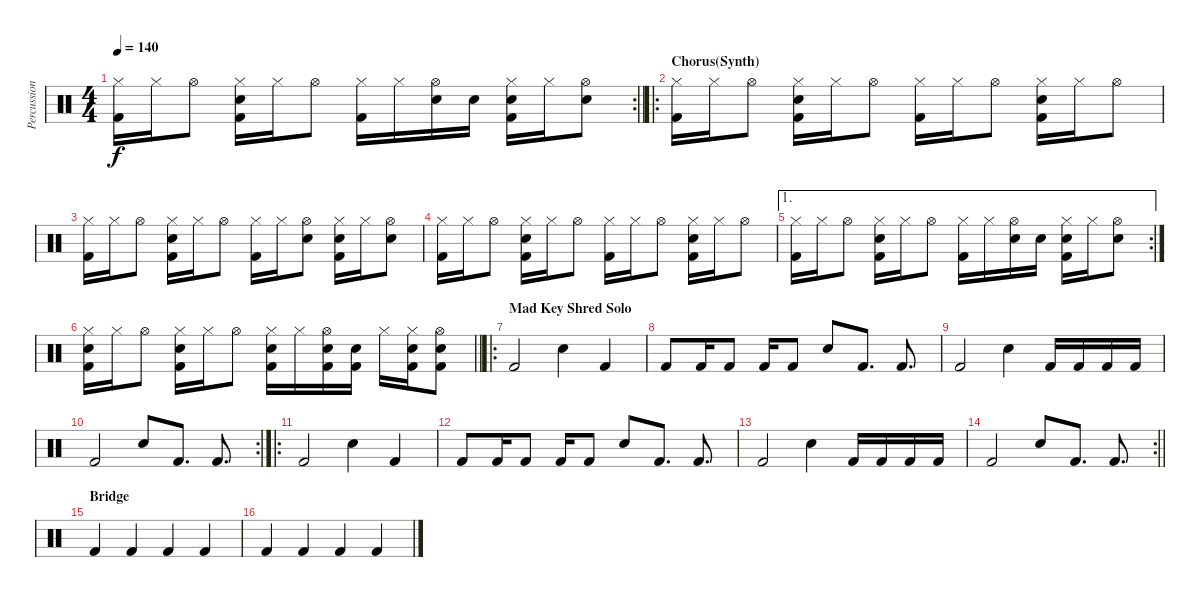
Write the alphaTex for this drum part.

\track ("Percussion" "Percussion") {instrument percussion}
\staff {score}
\articulation defaults
\rc 2
\ts (4 4)
\tempo 140
\clef neutral
\barLineRight lightlight
\ks c
("Hi-Hat (closed)" "Kick (hit) 2").16{dy f} "Hi-Hat (closed)".16 "Hi-Hat (open)".8 ("Hi-Hat (closed)" "Electric Snare (hit)" "Kick (hit) 2").16 "Hi-Hat (closed)".16 "Hi-Hat (open)".8 ("Hi-Hat (closed)" "Kick (hit) 2").16 "Hi-Hat (closed)".16 ("Hi-Hat (open)" "Electric Snare (hit)").16 "Electric Snare (hit)".16 ("Hi-Hat (closed)" "Electric Snare (hit)" "Kick (hit) 2").16 "Hi-Hat (closed)".16 ("Hi-Hat (open)" "Electric Snare (hit)").8 |
\ro
\section ("" "Chorus(Synth)")
("Hi-Hat (closed)" "Kick (hit) 2").16 "Hi-Hat (closed)".16 "Hi-Hat (open)".8 ("Hi-Hat (closed)" "Electric Snare (hit)" "Kick (hit) 2").16 "Hi-Hat (closed)".16 "Hi-Hat (open)".8 ("Hi-Hat (closed)" "Kick (hit) 2").16 "Hi-Hat (closed)".16 "Hi-Hat (open)".8 ("Hi-Hat (closed)" "Electric Snare (hit)" "Kick (hit) 2").16 "Hi-Hat (closed)".16 "Hi-Hat (open)".8 |
("Hi-Hat (closed)" "Kick (hit) 2").16 "Hi-Hat (closed)".16 "Hi-Hat (open)".8 ("Hi-Hat (closed)" "Electric Snare (hit)" "Kick (hit) 2").16 "Hi-Hat (closed)".16 "Hi-Hat (open)".8 ("Hi-Hat (closed)" "Kick (hit) 2").16 "Hi-Hat (closed)".16 ("Hi-Hat (open)" "Electric Snare (hit)").8 ("Hi-Hat (closed)" "Electric Snare (hit)" "Kick (hit) 2").16 "Hi-Hat (closed)".16 ("Hi-Hat (open)" "Electric Snare (hit)").8 |
("Hi-Hat (closed)" "Kick (hit) 2").16 "Hi-Hat (closed)".16 "Hi-Hat (open)".8 ("Hi-Hat (closed)" "Electric Snare (hit)" "Kick (hit) 2").16 "Hi-Hat (closed)".16 "Hi-Hat (open)".8 ("Hi-Hat (closed)" "Kick (hit) 2").16 "Hi-Hat (closed)".16 "Hi-Hat (open)".8 ("Hi-Hat (closed)" "Electric Snare (hit)" "Kick (hit) 2").16 "Hi-Hat (closed)".16 "Hi-Hat (open)".8 |
\ae 1
\rc 2
("Hi-Hat (closed)" "Kick (hit) 2").16 "Hi-Hat (closed)".16 "Hi-Hat (open)".8 ("Hi-Hat (closed)" "Electric Snare (hit)" "Kick (hit) 2").16 "Hi-Hat (closed)".16 "Hi-Hat (open)".8 ("Hi-Hat (closed)" "Kick (hit) 2").16 "Hi-Hat (closed)".16 ("Hi-Hat (open)" "Electric Snare (hit)").16 "Electric Snare (hit)".16 ("Hi-Hat (closed)" "Electric Snare (hit)" "Kick (hit) 2").16 "Hi-Hat (closed)".16 ("Hi-Hat (open)" "Electric Snare (hit)").8 |
\barLineRight lightlight
("Hi-Hat (closed)" "Electric Snare (hit)" "Kick (hit) 2").16 "Hi-Hat (closed)".16 "Hi-Hat (open)".8 ("Hi-Hat (closed)" "Electric Snare (hit)" "Kick (hit) 2").16 "Hi-Hat (closed)".16 "Hi-Hat (open)".8 ("Hi-Hat (closed)" "Electric Snare (hit)" "Kick (hit) 2").16 "Hi-Hat (closed)".16 ("Hi-Hat (open)" "Electric Snare (hit)" "Kick (hit) 2").16 ("Electric Snare (hit)" "Kick (hit) 2").16 "Hi-Hat (closed)".16 ("Hi-Hat (closed)" "Electric Snare (hit)" "Kick (hit) 2").16 ("Hi-Hat (open)" "Electric Snare (hit)" "Kick (hit) 2").8 |
\ro
\section ("" "Mad Key Shred Solo")
"Kick (hit) 2".2 "Snare (hit) 2".4 "Kick (hit) 2".4 |
"Kick (hit) 2".8 "Kick (hit) 2".16 "Kick (hit) 2".8 "Kick (hit) 2".16 "Kick (hit) 2".8 "Snare (hit) 2".8 "Kick (hit) 2".8{d} "Kick (hit) 2".8{d} |
"Kick (hit) 2".2 "Snare (hit) 2".4 "Kick (hit) 2".16 "Kick (hit) 2".16 "Kick (hit) 2".16 "Kick (hit) 2".16 |
\rc 2 "Kick (hit) 2".2 "Snare (hit) 2".8 "Kick (hit) 2".8{d} "Kick (hit) 2".8{d}
|
\ro "Kick (hit) 2".2 "Snare (hit) 2".4 "Kick (hit) 2".4
|
"Kick (hit) 2".8 "Kick (hit) 2".16 "Kick (hit) 2".8 "Kick (hit) 2".16 "Kick (hit) 2".8 "Snare (hit) 2".8 "Kick (hit) 2".8{d} "Kick (hit) 2".8{d} |
"Kick (hit) 2".2 "Snare (hit) 2".4 "Kick (hit) 2".16 "Kick (hit) 2".16 "Kick (hit) 2".16 "Kick (hit) 2".16 |
\rc 2
\barLineRight lightlight "Kick (hit) 2".2 "Snare (hit) 2".8 "Kick (hit) 2".8{d} "Kick (hit) 2".8{d}
|
\section ("" "Bridge")
"Kick (hit) 2".4 "Kick (hit) 2".4 "Kick (hit) 2".4 "Kick (hit) 2".4 |
"Kick (hit) 2".4 "Kick (hit) 2".4 "Kick (hit) 2".4 "Kick (hit) 2".4
